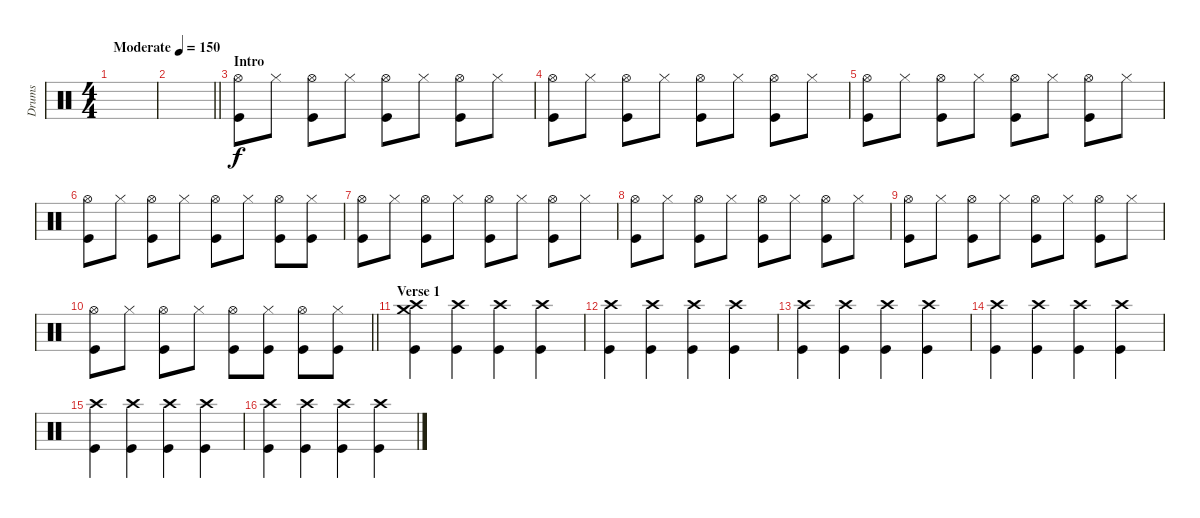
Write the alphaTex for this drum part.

\track ("Drums" "Drums") {instrument percussion}
\staff {score}
\articulation defaults
\ts (4 4)
\tempo (150 "Moderate")
\clef neutral
\ks c
|
\barLineRight lightlight
|
\section ("" "Intro")
("Hi-Hat (open)" "Kick (hit)").8 "Hi-Hat (closed)".8 ("Hi-Hat (open)" "Kick (hit)").8 "Hi-Hat (closed)".8 ("Hi-Hat (open)" "Kick (hit)").8 "Hi-Hat (closed)".8 ("Hi-Hat (open)" "Kick (hit)").8 "Hi-Hat (closed)".8 |
("Hi-Hat (open)" "Kick (hit)").8 "Hi-Hat (closed)".8 ("Hi-Hat (open)" "Kick (hit)").8 "Hi-Hat (closed)".8 ("Hi-Hat (open)" "Kick (hit)").8 "Hi-Hat (closed)".8 ("Hi-Hat (open)" "Kick (hit)").8 "Hi-Hat (closed)".8 |
("Hi-Hat (open)" "Kick (hit)").8 "Hi-Hat (closed)".8 ("Hi-Hat (open)" "Kick (hit)").8 "Hi-Hat (closed)".8 ("Hi-Hat (open)" "Kick (hit)").8 "Hi-Hat (closed)".8 ("Hi-Hat (open)" "Kick (hit)").8 "Hi-Hat (closed)".8 |
("Hi-Hat (open)" "Kick (hit)").8 "Hi-Hat (closed)".8 ("Hi-Hat (open)" "Kick (hit)").8 "Hi-Hat (closed)".8 ("Hi-Hat (open)" "Kick (hit)").8 "Hi-Hat (closed)".8 ("Hi-Hat (open)" "Kick (hit)").8 ("Hi-Hat (closed)" "Kick (hit)").8 |
("Hi-Hat (open)" "Kick (hit)").8 "Hi-Hat (closed)".8 ("Hi-Hat (open)" "Kick (hit)").8 "Hi-Hat (closed)".8 ("Hi-Hat (open)" "Kick (hit)").8 "Hi-Hat (closed)".8 ("Hi-Hat (open)" "Kick (hit)").8 "Hi-Hat (closed)".8 |
("Hi-Hat (open)" "Kick (hit)").8 "Hi-Hat (closed)".8 ("Hi-Hat (open)" "Kick (hit)").8 "Hi-Hat (closed)".8 ("Hi-Hat (open)" "Kick (hit)").8 "Hi-Hat (closed)".8 ("Hi-Hat (open)" "Kick (hit)").8 "Hi-Hat (closed)".8 |
("Hi-Hat (open)" "Kick (hit)").8 "Hi-Hat (closed)".8 ("Hi-Hat (open)" "Kick (hit)").8 "Hi-Hat (closed)".8 ("Hi-Hat (open)" "Kick (hit)").8 "Hi-Hat (closed)".8 ("Hi-Hat (open)" "Kick (hit)").8 "Hi-Hat (closed)".8 |
\barLineRight lightlight
("Hi-Hat (open)" "Kick (hit)").8 "Hi-Hat (closed)".8 ("Hi-Hat (open)" "Kick (hit)").8 "Hi-Hat (closed)".8 ("Hi-Hat (open)" "Kick (hit)").8 ("Hi-Hat (closed)" "Kick (hit)").8 ("Hi-Hat (open)" "Kick (hit)").8 ("Hi-Hat (closed)" "Kick (hit)").8 |
\section ("" "Verse 1")
("Crash medium (hit)" "Crash high (hit)" "Kick (hit)").4 ("Crash high (hit)" "Kick (hit)").4 ("Crash high (hit)" "Kick (hit)").4 ("Crash high (hit)" "Kick (hit)").4 |
("Crash high (hit)" "Kick (hit)").4 ("Crash high (hit)" "Kick (hit)").4 ("Crash high (hit)" "Kick (hit)").4 ("Crash high (hit)" "Kick (hit)").4 |
("Crash high (hit)" "Kick (hit)").4 ("Crash high (hit)" "Kick (hit)").4 ("Crash high (hit)" "Kick (hit)").4 ("Crash high (hit)" "Kick (hit)").4 |
("Crash high (hit)" "Kick (hit)").4 ("Crash high (hit)" "Kick (hit)").4 ("Crash high (hit)" "Kick (hit)").4 ("Crash high (hit)" "Kick (hit)").4 |
("Crash high (hit)" "Kick (hit)").4 ("Crash high (hit)" "Kick (hit)").4 ("Crash high (hit)" "Kick (hit)").4 ("Crash high (hit)" "Kick (hit)").4 |
("Crash high (hit)" "Kick (hit)").4 ("Crash high (hit)" "Kick (hit)").4 ("Crash high (hit)" "Kick (hit)").4 ("Crash high (hit)" "Kick (hit)").4
